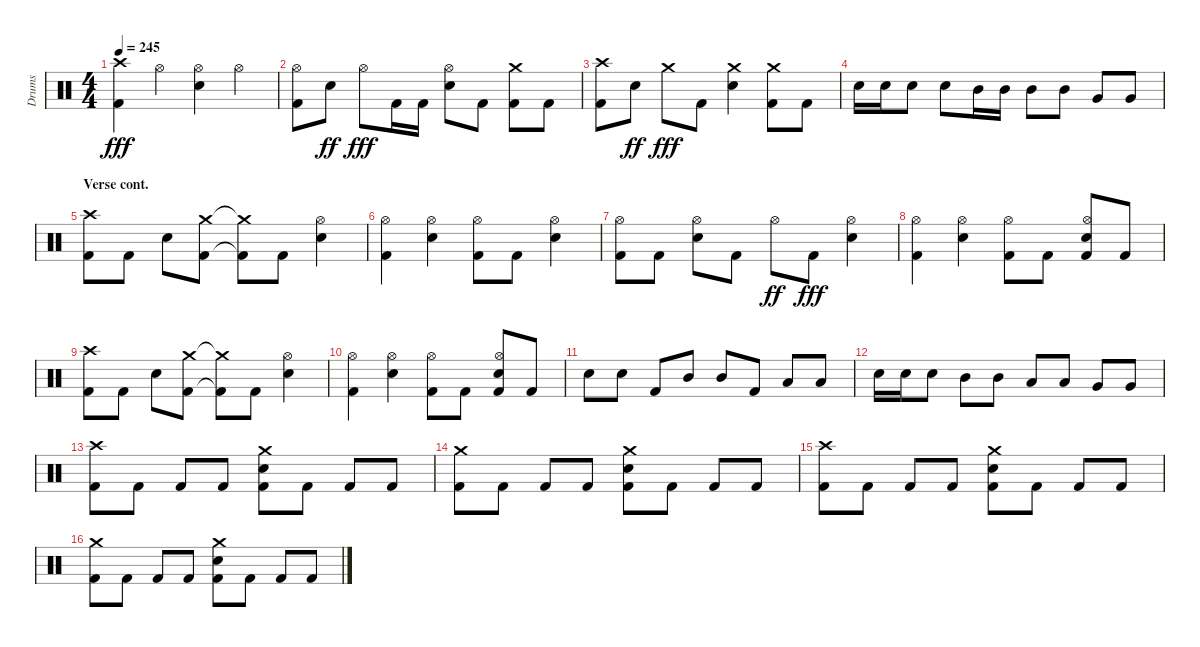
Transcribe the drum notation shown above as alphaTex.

\track ("Drums" "Drums") {instrument percussion}
\staff {score}
\articulation defaults
\ts (4 4)
\tempo 245
\clef neutral
\ks aminor
("Kick (hit) 2" "Crash high (hit)").4{dy fff} "Hi-Hat (open)".4 ("Snare (hit) 2" "Hi-Hat (open)").4 "Hi-Hat (open)".4 |
("Kick (hit) 2" "Hi-Hat (open)").8 "Snare (hit) 2".8{dy ff} "Hi-Hat (open)".8{dy fff} "Kick (hit) 2".16 "Kick (hit) 2".16 ("Snare (hit) 2" "Hi-Hat (open)").8 "Kick (hit) 2".8 ("Kick (hit) 2" "Crash medium (hit)").8 "Kick (hit) 2".8 |
("Kick (hit) 2" "Crash high (hit)").8 "Snare (hit) 2".8{dy ff} "Crash medium (hit)".8{dy fff} "Kick (hit) 2".8 ("Snare (hit) 2" "Crash medium (hit)").4 ("Kick (hit) 2" "Crash medium (hit)").8 "Kick (hit) 2".8 |
"Snare (hit) 2".16 "Snare (hit) 2".16 "Snare (hit) 2".8 "Snare (hit) 2".8 "Mid Tom (hit)".16 "Mid Tom (hit)".16 "Mid Tom (hit)".8 "Mid Tom (hit)".8 "Very Low Tom (hit)".8 "Very Low Tom (hit)".8 |
\section ("" "Verse cont.")
("Kick (hit) 2" "Crash high (hit)").8 "Kick (hit) 2".8 "Snare (hit) 2".8 ("Kick (hit) 2" "Crash medium (hit)").8 ("Kick (hit) 2"{t} "Crash medium (hit)"{t}).8 "Kick (hit) 2".8 ("Snare (hit) 2" "Hi-Hat (open)").4 |
("Kick (hit) 2" "Hi-Hat (open)").4 ("Snare (hit) 2" "Hi-Hat (open)").4 ("Kick (hit) 2" "Hi-Hat (open)").8 "Kick (hit) 2".8 ("Snare (hit) 2" "Hi-Hat (open)").4 |
("Kick (hit) 2" "Hi-Hat (open)").8 "Kick (hit) 2".8 ("Snare (hit) 2" "Hi-Hat (open)").8 "Kick (hit) 2".8 "Hi-Hat (open)".8{dy ff} "Kick (hit) 2".8{dy fff} ("Snare (hit) 2" "Hi-Hat (open)").4 |
("Kick (hit) 2" "Hi-Hat (open)").4 ("Snare (hit) 2" "Hi-Hat (open)").4 ("Kick (hit) 2" "Hi-Hat (open)").8 "Kick (hit) 2".8 ("Kick (hit) 2" "Snare (hit) 2" "Hi-Hat (open)").8 "Kick (hit) 2".8 |
("Kick (hit) 2" "Crash high (hit)").8 "Kick (hit) 2".8 "Snare (hit) 2".8 ("Kick (hit) 2" "Crash medium (hit)").8 ("Kick (hit) 2"{t} "Crash medium (hit)"{t}).8 "Kick (hit) 2".8 ("Snare (hit) 2" "Hi-Hat (open)").4 |
("Kick (hit) 2" "Hi-Hat (open)").4 ("Snare (hit) 2" "Hi-Hat (open)").4 ("Kick (hit) 2" "Hi-Hat (open)").8 "Kick (hit) 2".8 ("Kick (hit) 2" "Snare (hit) 2" "Hi-Hat (open)").8 "Kick (hit) 2".8 |
"Snare (hit) 2".8 "Snare (hit) 2".8 "Kick (hit) 2".8 "Mid Tom (hit)".8 "Mid Tom (hit)".8 "Kick (hit) 2".8 "Low Tom (hit)".8 "Low Tom (hit)".8 |
"Snare (hit) 2".16 "Snare (hit) 2".16 "Snare (hit) 2".8 "Mid Tom (hit)".8 "Mid Tom (hit)".8 "Low Tom (hit)".8 "Low Tom (hit)".8 "Very Low Tom (hit)".8 "Very Low Tom (hit)".8 |
("Kick (hit) 2" "Crash high (hit)").8 "Kick (hit) 2".8 "Kick (hit) 2".8 "Kick (hit) 2".8 ("Kick (hit) 2" "Snare (hit) 2" "Crash medium (hit)").8 "Kick (hit) 2".8 "Kick (hit) 2".8 "Kick (hit) 2".8 |
("Kick (hit) 2" "Crash medium (hit)").8 "Kick (hit) 2".8 "Kick (hit) 2".8 "Kick (hit) 2".8 ("Snare (hit) 2" "Kick (hit) 2" "Crash medium (hit)").8 "Kick (hit) 2".8 "Kick (hit) 2".8 "Kick (hit) 2".8 |
("Kick (hit) 2" "Crash high (hit)").8 "Kick (hit) 2".8 "Kick (hit) 2".8 "Kick (hit) 2".8 ("Kick (hit) 2" "Snare (hit) 2" "Crash medium (hit)").8 "Kick (hit) 2".8 "Kick (hit) 2".8 "Kick (hit) 2".8 |
("Kick (hit) 2" "Crash medium (hit)").8 "Kick (hit) 2".8 "Kick (hit) 2".8 "Kick (hit) 2".8 ("Kick (hit) 2" "Snare (hit) 2" "Crash medium (hit)").8 "Kick (hit) 2".8 "Kick (hit) 2".8 "Kick (hit) 2".8
